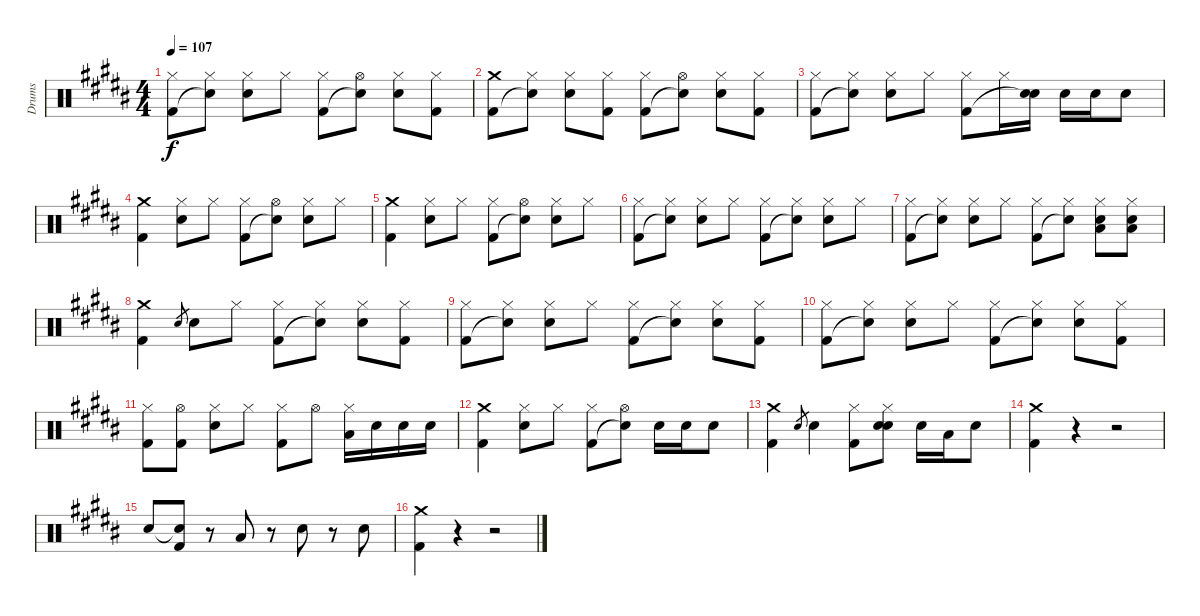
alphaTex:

\track ("Drums" "Drums") {instrument percussion}
\staff {score}
\articulation defaults
\ts (4 4)
\tempo 107
\clef neutral
\ks b
("Hi-Hat (closed)" "Kick (hit) 2").8{dy f} ("Hi-Hat (closed)" "Snare (hit)"{t}).8 ("Hi-Hat (closed)" "Snare (hit) 2").8 "Hi-Hat (closed)".8 ("Hi-Hat (closed)" "Kick (hit) 2").8 ("Hi-Hat (open)" "Snare (hit)"{t}).8 ("Hi-Hat (closed)" "Snare (hit) 2").8 ("Hi-Hat (closed)" "Kick (hit) 2").8 |
("Crash medium (hit)" "Kick (hit) 2").8 ("Hi-Hat (closed)" "Snare (hit)"{t}).8 ("Hi-Hat (closed)" "Snare (hit) 2").8 ("Hi-Hat (closed)" "Kick (hit) 2").8 ("Hi-Hat (closed)" "Kick (hit) 2").8 ("Hi-Hat (open)" "Snare (hit)"{t}).8 ("Hi-Hat (closed)" "Snare (hit) 2").8 ("Hi-Hat (closed)" "Kick (hit) 2").8 |
("Hi-Hat (closed)" "Kick (hit) 2").8 ("Hi-Hat (closed)" "Snare (hit)"{t}).8 ("Hi-Hat (closed)" "Snare (hit) 2").8 "Hi-Hat (closed)".8 ("Hi-Hat (closed)" "Kick (hit) 2").8 "Hi-Hat (closed)".16 ("Snare (hit) 2" "Snare (hit)"{t}).16 "Snare (hit) 2".16 "Snare (hit) 2".16 "Snare (hit) 2".8 |
("Crash medium (hit)" "Kick (hit) 2").4 ("Hi-Hat (closed)" "Snare (hit) 2").8 "Hi-Hat (closed)".8 ("Hi-Hat (closed)" "Kick (hit) 2").8 ("Hi-Hat (open)" "Snare (hit)"{t}).8 ("Hi-Hat (closed)" "Snare (hit) 2").8 "Hi-Hat (closed)".8 |
("Crash medium (hit)" "Kick (hit) 2").4 ("Hi-Hat (closed)" "Snare (hit) 2").8 "Hi-Hat (closed)".8 ("Hi-Hat (closed)" "Kick (hit) 2").8 ("Hi-Hat (open)" "Snare (hit)"{t}).8 ("Hi-Hat (closed)" "Snare (hit) 2").8 "Hi-Hat (closed)".8 |
("Hi-Hat (closed)" "Kick (hit) 2").8 ("Hi-Hat (closed)" "Snare (hit)"{t}).8 ("Hi-Hat (closed)" "Snare (hit) 2").8 "Hi-Hat (closed)".8 ("Hi-Hat (closed)" "Kick (hit) 2").8 ("Hi-Hat (closed)" "Snare (hit)"{t}).8 ("Hi-Hat (closed)" "Snare (hit) 2").8 "Hi-Hat (closed)".8 |
("Hi-Hat (closed)" "Kick (hit) 2").8 ("Hi-Hat (closed)" "Snare (hit)"{t}).8 ("Hi-Hat (closed)" "Snare (hit) 2").8 "Hi-Hat (closed)".8 ("Hi-Hat (closed)" "Kick (hit) 2").8 ("Hi-Hat (closed)" "Snare (hit)"{t}).8 ("Hi-Hat (closed)" "Snare (hit) 2" "Low Tom (hit)").8 ("Hi-Hat (closed)" "Snare (hit) 2" "Low Tom (hit)").8 |
("Crash medium (hit)" "Kick (hit) 2").4 "Snare (hit) 2".8{gr} "Snare (hit) 2".8 "Hi-Hat (closed)".8 ("Hi-Hat (closed)" "Kick (hit) 2").8 ("Hi-Hat (closed)" "Snare (hit)"{t}).8 ("Hi-Hat (closed)" "Snare (hit) 2").8 ("Hi-Hat (closed)" "Kick (hit) 2").8 |
("Hi-Hat (closed)" "Kick (hit) 2").8 ("Hi-Hat (closed)" "Snare (hit)"{t}).8 ("Hi-Hat (closed)" "Snare (hit) 2").8 "Hi-Hat (closed)".8 ("Hi-Hat (closed)" "Kick (hit) 2").8 ("Hi-Hat (closed)" "Snare (hit)"{t}).8 ("Hi-Hat (closed)" "Snare (hit) 2").8 ("Hi-Hat (closed)" "Kick (hit) 2").8 |
("Hi-Hat (closed)" "Kick (hit) 2").8 ("Hi-Hat (closed)" "Snare (hit)"{t}).8 ("Hi-Hat (closed)" "Snare (hit) 2").8 "Hi-Hat (closed)".8 ("Hi-Hat (closed)" "Kick (hit) 2").8 ("Hi-Hat (closed)" "Snare (hit)"{t}).8 ("Hi-Hat (closed)" "Snare (hit) 2").8 ("Hi-Hat (closed)" "Kick (hit) 2").8 |
("Hi-Hat (closed)" "Kick (hit) 2").8 ("Hi-Hat (open)" "Kick (hit) 2").8 ("Hi-Hat (closed)" "Snare (hit) 2").8 "Hi-Hat (closed)".8 ("Hi-Hat (closed)" "Kick (hit) 2").8 "Hi-Hat (open)".8 ("Hi-Hat (closed)" "Low Tom (hit)").16 "Snare (hit) 2".16 "Snare (hit) 2".16 "Snare (hit) 2".16 |
("Crash medium (hit)" "Kick (hit) 2").4 ("Hi-Hat (closed)" "Snare (hit) 2").8 "Hi-Hat (closed)".8 ("Hi-Hat (closed)" "Kick (hit) 2").8 ("Hi-Hat (open)" "Snare (hit)"{t}).8 "Snare (hit) 2".16 "Snare (hit) 2".16 "Snare (hit) 2".8 |
("Crash medium (hit)" "Kick (hit) 2").4 "Snare (hit) 2".8{gr} "Snare (hit) 2".4 ("Hi-Hat (closed)" "Kick (hit) 2").8 ("Hi-Hat (closed)" "Snare (hit) 2" "Snare (hit)").8 "Snare (hit) 2".16 "Low Tom (hit)".16 "Snare (hit) 2".8 |
("Crash medium (hit)" "Kick (hit) 2").4 r.4 r.2 |
"Snare (hit) 2".8 ("Electric Snare (hit)"{t} "Kick (hit) 2").8 r.8 "Low Tom (hit)".8 r.8 "Snare (hit) 2".8 r.8 "Snare (hit) 2".8 |
("Crash medium (hit)" "Kick (hit) 2").4 r.4 r.2
